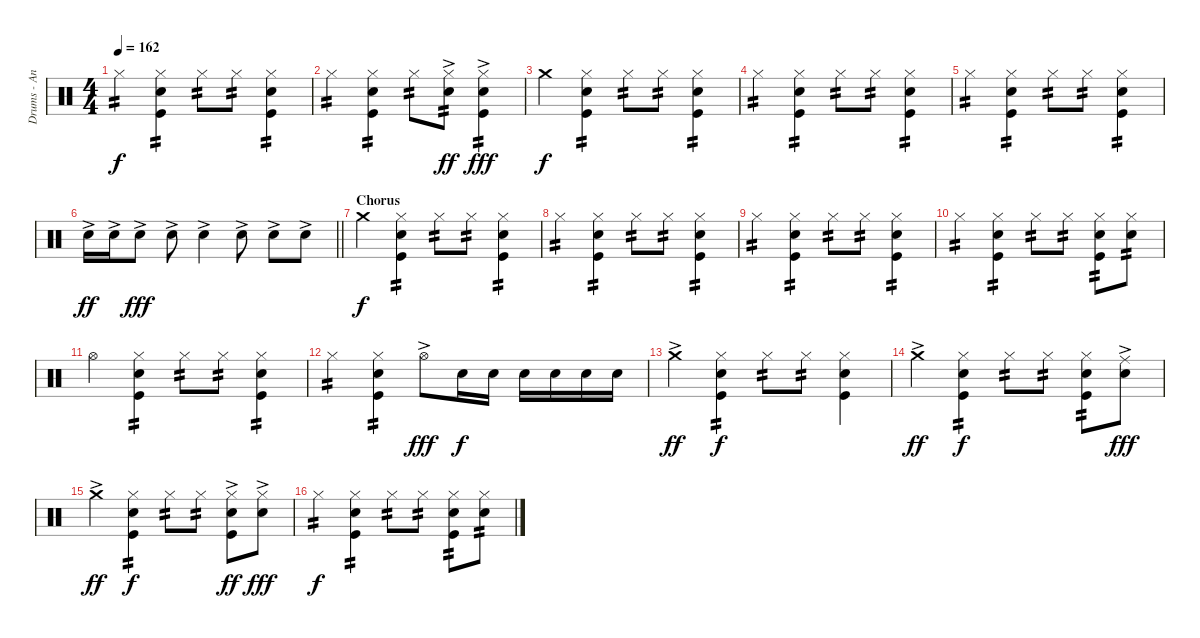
\track ("Drums - Andriushkin" "Drums - An") {instrument percussion}
\staff {score}
\articulation defaults
\ts (4 4)
\tempo 162
\clef neutral
\ks c "Hi-Hat (closed)".4{tp 2 dy f}
("Hi-Hat (closed)" "Electric Snare (hit)" "Kick (hit)").4{tp 2} "Hi-Hat (closed)".8{tp 2} "Hi-Hat (closed)".8{tp 2} ("Hi-Hat (closed)" "Electric Snare (hit)" "Kick (hit)").4{tp 2} |
"Hi-Hat (closed)".4{tp 2} ("Hi-Hat (closed)" "Electric Snare (hit)" "Kick (hit)").4{tp 2} "Hi-Hat (closed)".8{tp 2} ("Hi-Hat (closed)" "Electric Snare (hit)"{ac}).8{tp 2 dy ff} ("Hi-Hat (closed)" "Electric Snare (hit)"{ac} "Kick (hit)").4{tp 2 dy fff} |
"Crash medium (hit)".4{dy f} ("Hi-Hat (closed)" "Electric Snare (hit)" "Kick (hit)").4{tp 2} "Hi-Hat (closed)".8{tp 2} "Hi-Hat (closed)".8{tp 2} ("Hi-Hat (closed)" "Electric Snare (hit)" "Kick (hit)").4{tp 2} |
"Hi-Hat (closed)".4{tp 2} ("Hi-Hat (closed)" "Electric Snare (hit)" "Kick (hit)").4{tp 2} "Hi-Hat (closed)".8{tp 2} "Hi-Hat (closed)".8{tp 2} ("Hi-Hat (closed)" "Electric Snare (hit)" "Kick (hit)").4{tp 2} |
"Hi-Hat (closed)".4{tp 2} ("Hi-Hat (closed)" "Electric Snare (hit)" "Kick (hit)").4{tp 2} "Hi-Hat (closed)".8{tp 2} "Hi-Hat (closed)".8{tp 2} ("Hi-Hat (closed)" "Electric Snare (hit)" "Kick (hit)").4{tp 2} |
\barLineRight lightlight "Electric Snare (hit)"{ac}.16{dy ff} "Electric Snare (hit)"{ac}.16 "Electric Snare (hit)"{ac}.8{dy fff} "Electric Snare (hit)"{ac}.8 "Electric Snare (hit)"{ac}.4 "Electric Snare (hit)"{ac}.8 "Electric Snare (hit)"{ac}.8 "Electric Snare (hit)"{ac}.8
|
\section ("" "Chorus")
"Crash medium (hit)".4{dy f} ("Hi-Hat (closed)" "Electric Snare (hit)" "Kick (hit)").4{tp 2} "Hi-Hat (closed)".8{tp 2} "Hi-Hat (closed)".8{tp 2} ("Hi-Hat (closed)" "Electric Snare (hit)" "Kick (hit)").4{tp 2} |
"Hi-Hat (closed)".4{tp 2} ("Hi-Hat (closed)" "Electric Snare (hit)" "Kick (hit)").4{tp 2} "Hi-Hat (closed)".8{tp 2} "Hi-Hat (closed)".8{tp 2} ("Hi-Hat (closed)" "Electric Snare (hit)" "Kick (hit)").4{tp 2} |
"Hi-Hat (closed)".4{tp 2} ("Hi-Hat (closed)" "Electric Snare (hit)" "Kick (hit)").4{tp 2} "Hi-Hat (closed)".8{tp 2} "Hi-Hat (closed)".8{tp 2} ("Hi-Hat (closed)" "Electric Snare (hit)" "Kick (hit)").4{tp 2} |
"Hi-Hat (closed)".4{tp 2} ("Hi-Hat (closed)" "Electric Snare (hit)" "Kick (hit)").4{tp 2} "Hi-Hat (closed)".8{tp 2} "Hi-Hat (closed)".8{tp 2} ("Hi-Hat (closed)" "Electric Snare (hit)" "Kick (hit)").8{tp 2} ("Hi-Hat (closed)" "Electric Snare (hit)").8{tp 2} |
"Hi-Hat (open)".4 ("Hi-Hat (closed)" "Electric Snare (hit)" "Kick (hit)").4{tp 2} "Hi-Hat (closed)".8{tp 2} "Hi-Hat (closed)".8{tp 2} ("Hi-Hat (closed)" "Electric Snare (hit)" "Kick (hit)").4{tp 2} |
"Hi-Hat (closed)".4{tp 2} ("Hi-Hat (closed)" "Electric Snare (hit)" "Kick (hit)").4{tp 2} "Hi-Hat (open)"{ac}.8{dy fff} "Electric Snare (hit)".16{dy f} "Electric Snare (hit)".16 "Electric Snare (hit)".16 "Electric Snare (hit)".16 "Electric Snare (hit)".16 "Electric Snare (hit)".16 |
"Crash medium (hit)"{ac}.4{dy ff} ("Hi-Hat (closed)" "Electric Snare (hit)" "Kick (hit)").4{tp 2 dy f} "Hi-Hat (closed)".8{tp 2} "Hi-Hat (closed)".8{tp 2} ("Hi-Hat (closed)" "Electric Snare (hit)" "Kick (hit)").4 |
"Crash medium (hit)"{ac}.4{dy ff} ("Hi-Hat (closed)" "Electric Snare (hit)" "Kick (hit)").4{tp 2 dy f} "Hi-Hat (closed)".8{tp 2} "Hi-Hat (closed)".8{tp 2} ("Hi-Hat (closed)" "Electric Snare (hit)" "Kick (hit)").8{tp 2} ("Ride (middle)"{ac} "Electric Snare (hit)").8{dy fff} |
"Crash medium (hit)"{ac}.4{dy ff} ("Hi-Hat (closed)" "Electric Snare (hit)" "Kick (hit)").4{tp 2 dy f} "Hi-Hat (closed)".8{tp 2} "Hi-Hat (closed)".8{tp 2} ("Hi-Hat (closed)" "Electric Snare (hit)"{ac} "Kick (hit)").8{dy ff} ("Hi-Hat (closed)" "Electric Snare (hit)"{ac}).8{dy fff} |
"Hi-Hat (closed)".4{tp 2 dy f} ("Hi-Hat (closed)" "Electric Snare (hit)" "Kick (hit)").4{tp 2} "Hi-Hat (closed)".8{tp 2} "Hi-Hat (closed)".8{tp 2} ("Hi-Hat (closed)" "Electric Snare (hit)" "Kick (hit)").8{tp 2} ("Hi-Hat (closed)" "Electric Snare (hit)").8{tp 2}
